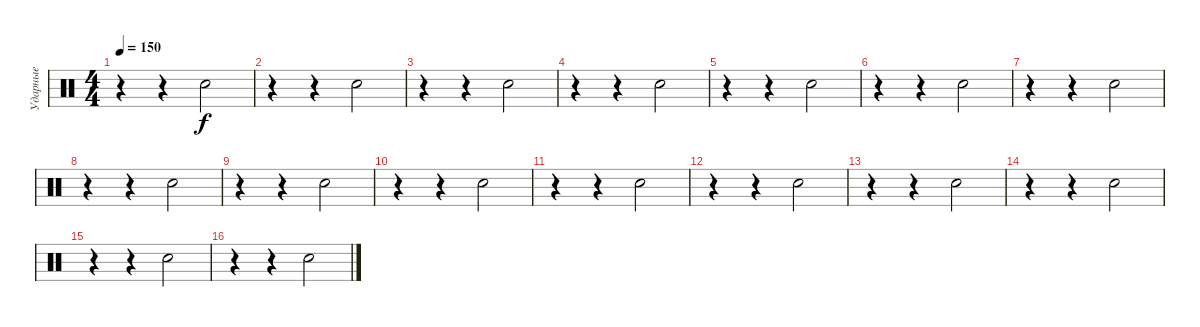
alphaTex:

\track ("Ударные" "Ударные") {instrument percussion}
\staff {score}
\articulation defaults
\ts (4 4)
\tempo 150
\clef neutral
\ks c
r.4{dy f} r.4 "Hand Clap (hit)".2 |
r.4 r.4 "Hand Clap (hit)".2 |
r.4 r.4 "Hand Clap (hit)".2 |
r.4 r.4 "Hand Clap (hit)".2 |
r.4 r.4 "Hand Clap (hit)".2 |
r.4 r.4 "Hand Clap (hit)".2 |
r.4 r.4 "Hand Clap (hit)".2 |
r.4 r.4 "Hand Clap (hit)".2 |
r.4 r.4 "Hand Clap (hit)".2 |
r.4 r.4 "Hand Clap (hit)".2 |
r.4 r.4 "Hand Clap (hit)".2 |
r.4 r.4 "Hand Clap (hit)".2 |
r.4 r.4 "Hand Clap (hit)".2 |
r.4 r.4 "Hand Clap (hit)".2 |
r.4 r.4 "Hand Clap (hit)".2 |
r.4 r.4 "Hand Clap (hit)".2
